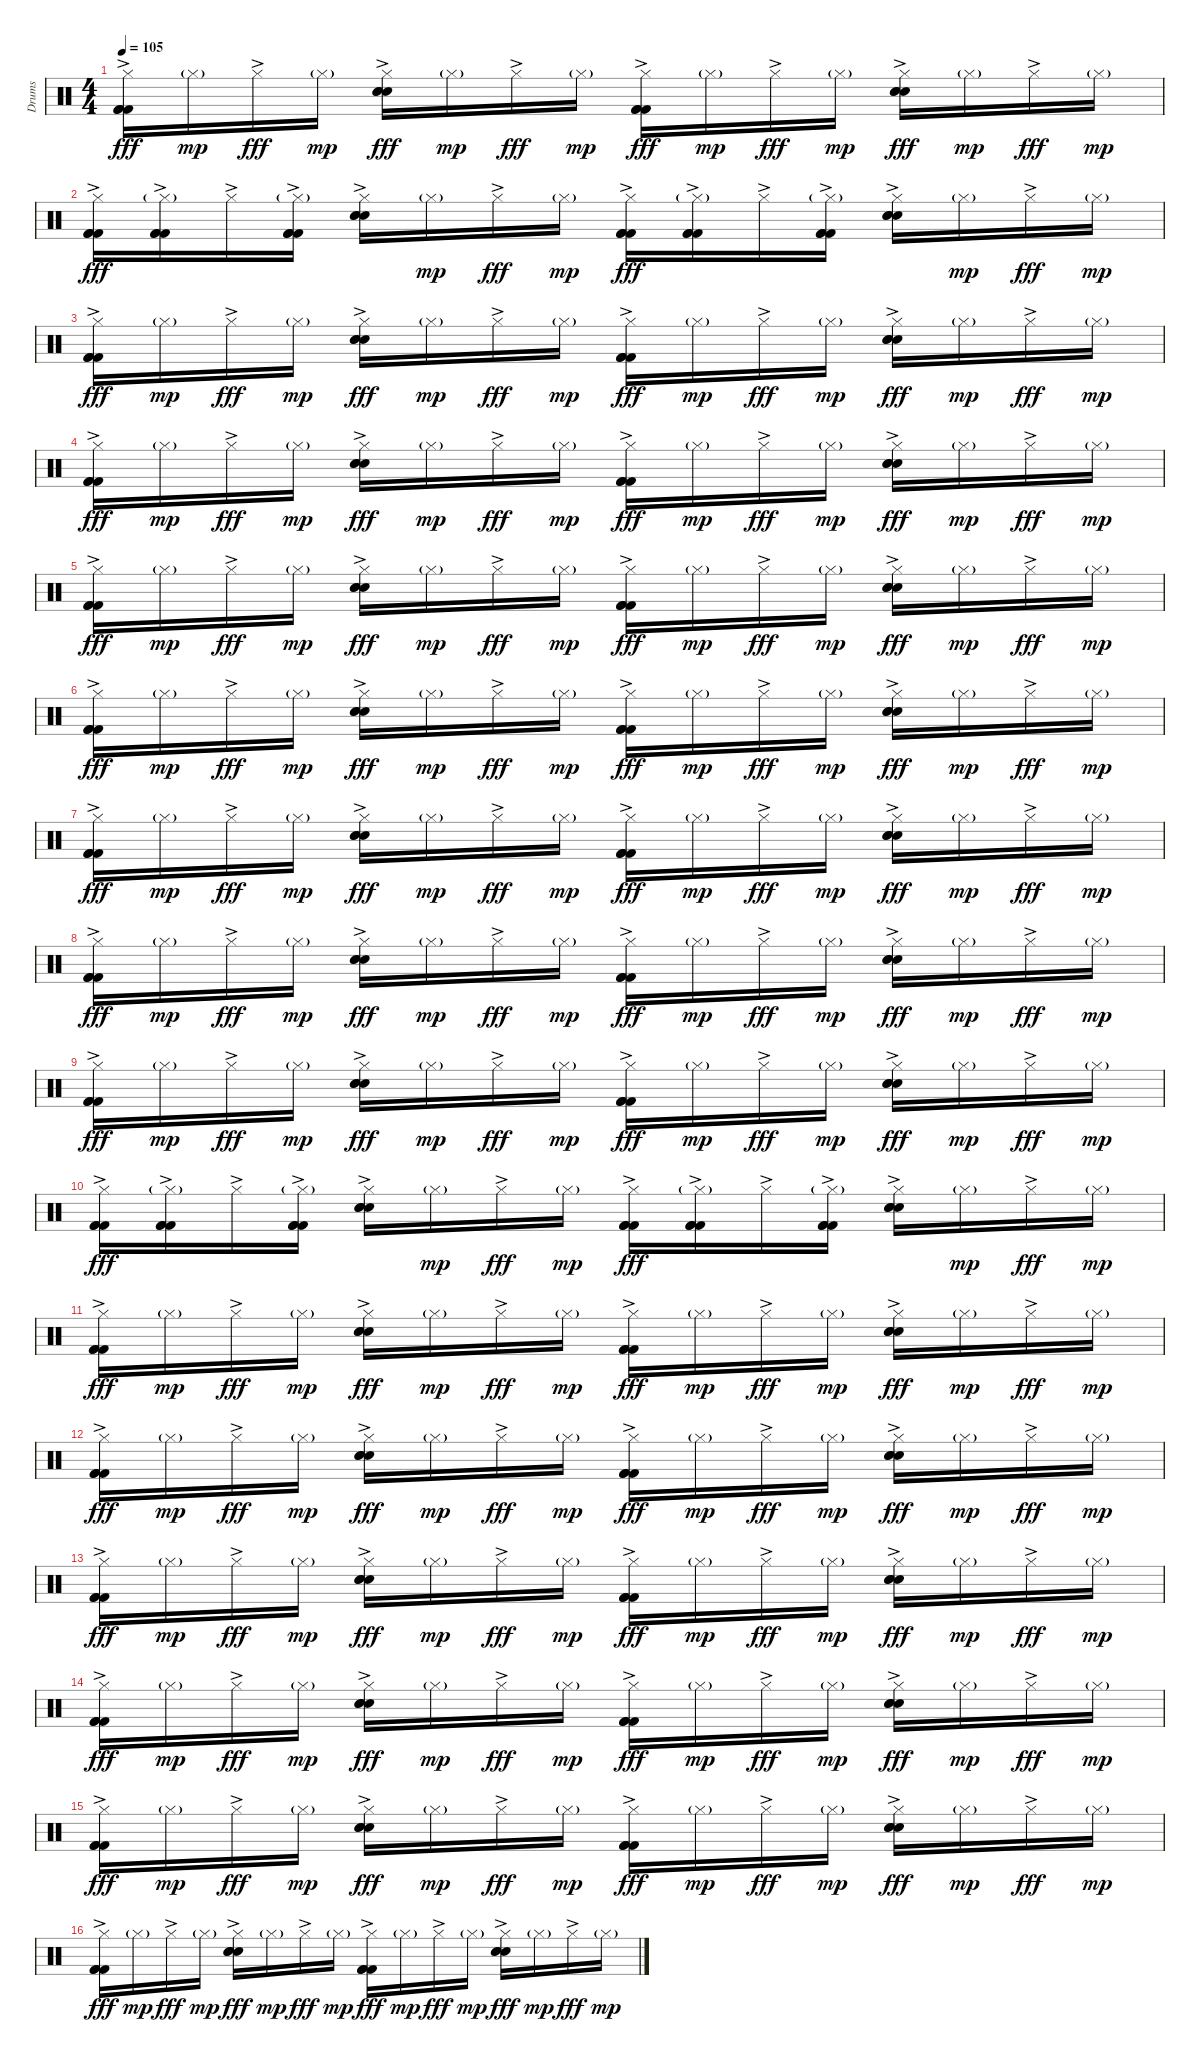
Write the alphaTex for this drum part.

\track ("Drums" "Drums") {instrument percussion}
\staff {score}
\articulation defaults
\ts (4 4)
\tempo 105
\clef neutral
\ks c
("Hi-Hat (closed)"{ac} "Kick (hit) 2"{ac} "Kick (hit) 2"{ac} "Kick (hit) 2"{ac}).16{dy fff} "Hi-Hat (closed)"{g}.16{dy mp} "Hi-Hat (closed)"{ac}.16{dy fff} "Hi-Hat (closed)"{g}.16{dy mp} ("Hi-Hat (closed)"{ac} "Snare (hit) 2"{ac} "Snare (hit) 2"{ac} "Snare (hit) 2"{ac}).16{dy fff} "Hi-Hat (closed)"{g}.16{dy mp} "Hi-Hat (closed)"{ac}.16{dy fff} "Hi-Hat (closed)"{g}.16{dy mp} ("Hi-Hat (closed)"{ac} "Kick (hit) 2"{ac} "Kick (hit) 2"{ac} "Kick (hit) 2"{ac}).16{dy fff} "Hi-Hat (closed)"{g}.16{dy mp} "Hi-Hat (closed)"{ac}.16{dy fff} "Hi-Hat (closed)"{g}.16{dy mp} ("Hi-Hat (closed)"{ac} "Snare (hit) 2"{ac} "Snare (hit) 2"{ac} "Snare (hit) 2"{ac}).16{dy fff} "Hi-Hat (closed)"{g}.16{dy mp} "Hi-Hat (closed)"{ac}.16{dy fff} "Hi-Hat (closed)"{g}.16{dy mp} |
("Hi-Hat (closed)"{ac} "Kick (hit) 2"{ac} "Kick (hit) 2"{ac} "Kick (hit) 2"{ac}).16{dy fff} ("Hi-Hat (closed)"{g} "Kick (hit) 2"{ac} "Kick (hit) 2"{ac} "Kick (hit) 2"{ac}).16 "Hi-Hat (closed)"{ac}.16 ("Hi-Hat (closed)"{g} "Kick (hit) 2"{ac} "Kick (hit) 2"{ac} "Kick (hit) 2"{ac}).16 ("Hi-Hat (closed)"{ac} "Snare (hit) 2"{ac} "Snare (hit) 2"{ac} "Snare (hit) 2"{ac}).16 "Hi-Hat (closed)"{g}.16{dy mp} "Hi-Hat (closed)"{ac}.16{dy fff} "Hi-Hat (closed)"{g}.16{dy mp} ("Hi-Hat (closed)"{ac} "Kick (hit) 2"{ac} "Kick (hit) 2"{ac} "Kick (hit) 2"{ac}).16{dy fff} ("Hi-Hat (closed)"{g} "Kick (hit) 2"{ac} "Kick (hit) 2"{ac} "Kick (hit) 2"{ac}).16 "Hi-Hat (closed)"{ac}.16 ("Hi-Hat (closed)"{g} "Kick (hit) 2"{ac} "Kick (hit) 2"{ac} "Kick (hit) 2"{ac}).16 ("Hi-Hat (closed)"{ac} "Snare (hit) 2"{ac} "Snare (hit) 2"{ac} "Snare (hit) 2"{ac}).16 "Hi-Hat (closed)"{g}.16{dy mp} "Hi-Hat (closed)"{ac}.16{dy fff} "Hi-Hat (closed)"{g}.16{dy mp} |
("Hi-Hat (closed)"{ac} "Kick (hit) 2"{ac} "Kick (hit) 2"{ac} "Kick (hit) 2"{ac}).16{dy fff} "Hi-Hat (closed)"{g}.16{dy mp} "Hi-Hat (closed)"{ac}.16{dy fff} "Hi-Hat (closed)"{g}.16{dy mp} ("Hi-Hat (closed)"{ac} "Snare (hit) 2"{ac} "Snare (hit) 2"{ac} "Snare (hit) 2"{ac}).16{dy fff} "Hi-Hat (closed)"{g}.16{dy mp} "Hi-Hat (closed)"{ac}.16{dy fff} "Hi-Hat (closed)"{g}.16{dy mp} ("Hi-Hat (closed)"{ac} "Kick (hit) 2"{ac} "Kick (hit) 2"{ac} "Kick (hit) 2"{ac}).16{dy fff} "Hi-Hat (closed)"{g}.16{dy mp} "Hi-Hat (closed)"{ac}.16{dy fff} "Hi-Hat (closed)"{g}.16{dy mp} ("Hi-Hat (closed)"{ac} "Snare (hit) 2"{ac} "Snare (hit) 2"{ac} "Snare (hit) 2"{ac}).16{dy fff} "Hi-Hat (closed)"{g}.16{dy mp} "Hi-Hat (closed)"{ac}.16{dy fff} "Hi-Hat (closed)"{g}.16{dy mp} |
("Hi-Hat (closed)"{ac} "Kick (hit) 2"{ac} "Kick (hit) 2"{ac} "Kick (hit) 2"{ac}).16{dy fff} "Hi-Hat (closed)"{g}.16{dy mp} "Hi-Hat (closed)"{ac}.16{dy fff} "Hi-Hat (closed)"{g}.16{dy mp} ("Hi-Hat (closed)"{ac} "Snare (hit) 2"{ac} "Snare (hit) 2"{ac} "Snare (hit) 2"{ac}).16{dy fff} "Hi-Hat (closed)"{g}.16{dy mp} "Hi-Hat (closed)"{ac}.16{dy fff} "Hi-Hat (closed)"{g}.16{dy mp} ("Hi-Hat (closed)"{ac} "Kick (hit) 2"{ac} "Kick (hit) 2"{ac} "Kick (hit) 2"{ac}).16{dy fff} "Hi-Hat (closed)"{g}.16{dy mp} "Hi-Hat (closed)"{ac}.16{dy fff} "Hi-Hat (closed)"{g}.16{dy mp} ("Hi-Hat (closed)"{ac} "Snare (hit) 2"{ac} "Snare (hit) 2"{ac} "Snare (hit) 2"{ac}).16{dy fff} "Hi-Hat (closed)"{g}.16{dy mp} "Hi-Hat (closed)"{ac}.16{dy fff} "Hi-Hat (closed)"{g}.16{dy mp} |
("Hi-Hat (closed)"{ac} "Kick (hit) 2"{ac} "Kick (hit) 2"{ac} "Kick (hit) 2"{ac}).16{dy fff} "Hi-Hat (closed)"{g}.16{dy mp} "Hi-Hat (closed)"{ac}.16{dy fff} "Hi-Hat (closed)"{g}.16{dy mp} ("Hi-Hat (closed)"{ac} "Snare (hit) 2"{ac} "Snare (hit) 2"{ac} "Snare (hit) 2"{ac}).16{dy fff} "Hi-Hat (closed)"{g}.16{dy mp} "Hi-Hat (closed)"{ac}.16{dy fff} "Hi-Hat (closed)"{g}.16{dy mp} ("Hi-Hat (closed)"{ac} "Kick (hit) 2"{ac} "Kick (hit) 2"{ac} "Kick (hit) 2"{ac}).16{dy fff} "Hi-Hat (closed)"{g}.16{dy mp} "Hi-Hat (closed)"{ac}.16{dy fff} "Hi-Hat (closed)"{g}.16{dy mp} ("Hi-Hat (closed)"{ac} "Snare (hit) 2"{ac} "Snare (hit) 2"{ac} "Snare (hit) 2"{ac}).16{dy fff} "Hi-Hat (closed)"{g}.16{dy mp} "Hi-Hat (closed)"{ac}.16{dy fff} "Hi-Hat (closed)"{g}.16{dy mp} |
("Hi-Hat (closed)"{ac} "Kick (hit) 2"{ac} "Kick (hit) 2"{ac} "Kick (hit) 2"{ac}).16{dy fff} "Hi-Hat (closed)"{g}.16{dy mp} "Hi-Hat (closed)"{ac}.16{dy fff} "Hi-Hat (closed)"{g}.16{dy mp} ("Hi-Hat (closed)"{ac} "Snare (hit) 2"{ac} "Snare (hit) 2"{ac} "Snare (hit) 2"{ac}).16{dy fff} "Hi-Hat (closed)"{g}.16{dy mp} "Hi-Hat (closed)"{ac}.16{dy fff} "Hi-Hat (closed)"{g}.16{dy mp} ("Hi-Hat (closed)"{ac} "Kick (hit) 2"{ac} "Kick (hit) 2"{ac} "Kick (hit) 2"{ac}).16{dy fff} "Hi-Hat (closed)"{g}.16{dy mp} "Hi-Hat (closed)"{ac}.16{dy fff} "Hi-Hat (closed)"{g}.16{dy mp} ("Hi-Hat (closed)"{ac} "Snare (hit) 2"{ac} "Snare (hit) 2"{ac} "Snare (hit) 2"{ac}).16{dy fff} "Hi-Hat (closed)"{g}.16{dy mp} "Hi-Hat (closed)"{ac}.16{dy fff} "Hi-Hat (closed)"{g}.16{dy mp} |
("Hi-Hat (closed)"{ac} "Kick (hit) 2"{ac} "Kick (hit) 2"{ac} "Kick (hit) 2"{ac}).16{dy fff} "Hi-Hat (closed)"{g}.16{dy mp} "Hi-Hat (closed)"{ac}.16{dy fff} "Hi-Hat (closed)"{g}.16{dy mp} ("Hi-Hat (closed)"{ac} "Snare (hit) 2"{ac} "Snare (hit) 2"{ac} "Snare (hit) 2"{ac}).16{dy fff} "Hi-Hat (closed)"{g}.16{dy mp} "Hi-Hat (closed)"{ac}.16{dy fff} "Hi-Hat (closed)"{g}.16{dy mp} ("Hi-Hat (closed)"{ac} "Kick (hit) 2"{ac} "Kick (hit) 2"{ac} "Kick (hit) 2"{ac}).16{dy fff} "Hi-Hat (closed)"{g}.16{dy mp} "Hi-Hat (closed)"{ac}.16{dy fff} "Hi-Hat (closed)"{g}.16{dy mp} ("Hi-Hat (closed)"{ac} "Snare (hit) 2"{ac} "Snare (hit) 2"{ac} "Snare (hit) 2"{ac}).16{dy fff} "Hi-Hat (closed)"{g}.16{dy mp} "Hi-Hat (closed)"{ac}.16{dy fff} "Hi-Hat (closed)"{g}.16{dy mp} |
("Hi-Hat (closed)"{ac} "Kick (hit) 2"{ac} "Kick (hit) 2"{ac} "Kick (hit) 2"{ac}).16{dy fff} "Hi-Hat (closed)"{g}.16{dy mp} "Hi-Hat (closed)"{ac}.16{dy fff} "Hi-Hat (closed)"{g}.16{dy mp} ("Hi-Hat (closed)"{ac} "Snare (hit) 2"{ac} "Snare (hit) 2"{ac} "Snare (hit) 2"{ac}).16{dy fff} "Hi-Hat (closed)"{g}.16{dy mp} "Hi-Hat (closed)"{ac}.16{dy fff} "Hi-Hat (closed)"{g}.16{dy mp} ("Hi-Hat (closed)"{ac} "Kick (hit) 2"{ac} "Kick (hit) 2"{ac} "Kick (hit) 2"{ac}).16{dy fff} "Hi-Hat (closed)"{g}.16{dy mp} "Hi-Hat (closed)"{ac}.16{dy fff} "Hi-Hat (closed)"{g}.16{dy mp} ("Hi-Hat (closed)"{ac} "Snare (hit) 2"{ac} "Snare (hit) 2"{ac} "Snare (hit) 2"{ac}).16{dy fff} "Hi-Hat (closed)"{g}.16{dy mp} "Hi-Hat (closed)"{ac}.16{dy fff} "Hi-Hat (closed)"{g}.16{dy mp} |
("Hi-Hat (closed)"{ac} "Kick (hit) 2"{ac} "Kick (hit) 2"{ac} "Kick (hit) 2"{ac}).16{dy fff} "Hi-Hat (closed)"{g}.16{dy mp} "Hi-Hat (closed)"{ac}.16{dy fff} "Hi-Hat (closed)"{g}.16{dy mp} ("Hi-Hat (closed)"{ac} "Snare (hit) 2"{ac} "Snare (hit) 2"{ac} "Snare (hit) 2"{ac}).16{dy fff} "Hi-Hat (closed)"{g}.16{dy mp} "Hi-Hat (closed)"{ac}.16{dy fff} "Hi-Hat (closed)"{g}.16{dy mp} ("Hi-Hat (closed)"{ac} "Kick (hit) 2"{ac} "Kick (hit) 2"{ac} "Kick (hit) 2"{ac}).16{dy fff} "Hi-Hat (closed)"{g}.16{dy mp} "Hi-Hat (closed)"{ac}.16{dy fff} "Hi-Hat (closed)"{g}.16{dy mp} ("Hi-Hat (closed)"{ac} "Snare (hit) 2"{ac} "Snare (hit) 2"{ac} "Snare (hit) 2"{ac}).16{dy fff} "Hi-Hat (closed)"{g}.16{dy mp} "Hi-Hat (closed)"{ac}.16{dy fff} "Hi-Hat (closed)"{g}.16{dy mp} |
("Hi-Hat (closed)"{ac} "Kick (hit) 2"{ac} "Kick (hit) 2"{ac} "Kick (hit) 2"{ac}).16{dy fff} ("Hi-Hat (closed)"{g} "Kick (hit) 2"{ac} "Kick (hit) 2"{ac} "Kick (hit) 2"{ac}).16 "Hi-Hat (closed)"{ac}.16 ("Hi-Hat (closed)"{g} "Kick (hit) 2"{ac} "Kick (hit) 2"{ac} "Kick (hit) 2"{ac}).16 ("Hi-Hat (closed)"{ac} "Snare (hit) 2"{ac} "Snare (hit) 2"{ac} "Snare (hit) 2"{ac}).16 "Hi-Hat (closed)"{g}.16{dy mp} "Hi-Hat (closed)"{ac}.16{dy fff} "Hi-Hat (closed)"{g}.16{dy mp} ("Hi-Hat (closed)"{ac} "Kick (hit) 2"{ac} "Kick (hit) 2"{ac} "Kick (hit) 2"{ac}).16{dy fff} ("Hi-Hat (closed)"{g} "Kick (hit) 2"{ac} "Kick (hit) 2"{ac} "Kick (hit) 2"{ac}).16 "Hi-Hat (closed)"{ac}.16 ("Hi-Hat (closed)"{g} "Kick (hit) 2"{ac} "Kick (hit) 2"{ac} "Kick (hit) 2"{ac}).16 ("Hi-Hat (closed)"{ac} "Snare (hit) 2"{ac} "Snare (hit) 2"{ac} "Snare (hit) 2"{ac}).16 "Hi-Hat (closed)"{g}.16{dy mp} "Hi-Hat (closed)"{ac}.16{dy fff} "Hi-Hat (closed)"{g}.16{dy mp} |
("Hi-Hat (closed)"{ac} "Kick (hit) 2"{ac} "Kick (hit) 2"{ac} "Kick (hit) 2"{ac}).16{dy fff} "Hi-Hat (closed)"{g}.16{dy mp} "Hi-Hat (closed)"{ac}.16{dy fff} "Hi-Hat (closed)"{g}.16{dy mp} ("Hi-Hat (closed)"{ac} "Snare (hit) 2"{ac} "Snare (hit) 2"{ac} "Snare (hit) 2"{ac}).16{dy fff} "Hi-Hat (closed)"{g}.16{dy mp} "Hi-Hat (closed)"{ac}.16{dy fff} "Hi-Hat (closed)"{g}.16{dy mp} ("Hi-Hat (closed)"{ac} "Kick (hit) 2"{ac} "Kick (hit) 2"{ac} "Kick (hit) 2"{ac}).16{dy fff} "Hi-Hat (closed)"{g}.16{dy mp} "Hi-Hat (closed)"{ac}.16{dy fff} "Hi-Hat (closed)"{g}.16{dy mp} ("Hi-Hat (closed)"{ac} "Snare (hit) 2"{ac} "Snare (hit) 2"{ac} "Snare (hit) 2"{ac}).16{dy fff} "Hi-Hat (closed)"{g}.16{dy mp} "Hi-Hat (closed)"{ac}.16{dy fff} "Hi-Hat (closed)"{g}.16{dy mp} |
("Hi-Hat (closed)"{ac} "Kick (hit) 2"{ac} "Kick (hit) 2"{ac} "Kick (hit) 2"{ac}).16{dy fff volume 9} "Hi-Hat (closed)"{g}.16{dy mp} "Hi-Hat (closed)"{ac}.16{dy fff} "Hi-Hat (closed)"{g}.16{dy mp} ("Hi-Hat (closed)"{ac} "Snare (hit) 2"{ac} "Snare (hit) 2"{ac} "Snare (hit) 2"{ac}).16{dy fff} "Hi-Hat (closed)"{g}.16{dy mp} "Hi-Hat (closed)"{ac}.16{dy fff} "Hi-Hat (closed)"{g}.16{dy mp} ("Hi-Hat (closed)"{ac} "Kick (hit) 2"{ac} "Kick (hit) 2"{ac} "Kick (hit) 2"{ac}).16{dy fff} "Hi-Hat (closed)"{g}.16{dy mp} "Hi-Hat (closed)"{ac}.16{dy fff} "Hi-Hat (closed)"{g}.16{dy mp} ("Hi-Hat (closed)"{ac} "Snare (hit) 2"{ac} "Snare (hit) 2"{ac} "Snare (hit) 2"{ac}).16{dy fff} "Hi-Hat (closed)"{g}.16{dy mp} "Hi-Hat (closed)"{ac}.16{dy fff} "Hi-Hat (closed)"{g}.16{dy mp} |
("Hi-Hat (closed)"{ac} "Kick (hit) 2"{ac} "Kick (hit) 2"{ac} "Kick (hit) 2"{ac}).16{dy fff volume 9} "Hi-Hat (closed)"{g}.16{dy mp} "Hi-Hat (closed)"{ac}.16{dy fff} "Hi-Hat (closed)"{g}.16{dy mp} ("Hi-Hat (closed)"{ac} "Snare (hit) 2"{ac} "Snare (hit) 2"{ac} "Snare (hit) 2"{ac}).16{dy fff} "Hi-Hat (closed)"{g}.16{dy mp} "Hi-Hat (closed)"{ac}.16{dy fff} "Hi-Hat (closed)"{g}.16{dy mp} ("Hi-Hat (closed)"{ac} "Kick (hit) 2"{ac} "Kick (hit) 2"{ac} "Kick (hit) 2"{ac}).16{dy fff} "Hi-Hat (closed)"{g}.16{dy mp} "Hi-Hat (closed)"{ac}.16{dy fff} "Hi-Hat (closed)"{g}.16{dy mp} ("Hi-Hat (closed)"{ac} "Snare (hit) 2"{ac} "Snare (hit) 2"{ac} "Snare (hit) 2"{ac}).16{dy fff} "Hi-Hat (closed)"{g}.16{dy mp} "Hi-Hat (closed)"{ac}.16{dy fff} "Hi-Hat (closed)"{g}.16{dy mp} |
("Hi-Hat (closed)"{ac} "Kick (hit) 2"{ac} "Kick (hit) 2"{ac} "Kick (hit) 2"{ac}).16{dy fff} "Hi-Hat (closed)"{g}.16{dy mp} "Hi-Hat (closed)"{ac}.16{dy fff volume 5} "Hi-Hat (closed)"{g}.16{dy mp} ("Hi-Hat (closed)"{ac} "Snare (hit) 2"{ac} "Snare (hit) 2"{ac} "Snare (hit) 2"{ac}).16{dy fff} "Hi-Hat (closed)"{g}.16{dy mp} "Hi-Hat (closed)"{ac}.16{dy fff} "Hi-Hat (closed)"{g}.16{dy mp} ("Hi-Hat (closed)"{ac} "Kick (hit) 2"{ac} "Kick (hit) 2"{ac} "Kick (hit) 2"{ac}).16{dy fff} "Hi-Hat (closed)"{g}.16{dy mp} "Hi-Hat (closed)"{ac}.16{dy fff} "Hi-Hat (closed)"{g}.16{dy mp} ("Hi-Hat (closed)"{ac} "Snare (hit) 2"{ac} "Snare (hit) 2"{ac} "Snare (hit) 2"{ac}).16{dy fff} "Hi-Hat (closed)"{g}.16{dy mp} "Hi-Hat (closed)"{ac}.16{dy fff} "Hi-Hat (closed)"{g}.16{dy mp} |
("Hi-Hat (closed)"{ac} "Kick (hit) 2"{ac} "Kick (hit) 2"{ac} "Kick (hit) 2"{ac}).16{dy fff volume 3} "Hi-Hat (closed)"{g}.16{dy mp} "Hi-Hat (closed)"{ac}.16{dy fff} "Hi-Hat (closed)"{g}.16{dy mp} ("Hi-Hat (closed)"{ac} "Snare (hit) 2"{ac} "Snare (hit) 2"{ac} "Snare (hit) 2"{ac}).16{dy fff} "Hi-Hat (closed)"{g}.16{dy mp} "Hi-Hat (closed)"{ac}.16{dy fff} "Hi-Hat (closed)"{g}.16{dy mp} ("Hi-Hat (closed)"{ac} "Kick (hit) 2"{ac} "Kick (hit) 2"{ac} "Kick (hit) 2"{ac}).16{dy fff} "Hi-Hat (closed)"{g}.16{dy mp} "Hi-Hat (closed)"{ac}.16{dy fff} "Hi-Hat (closed)"{g}.16{dy mp} ("Hi-Hat (closed)"{ac} "Snare (hit) 2"{ac} "Snare (hit) 2"{ac} "Snare (hit) 2"{ac}).16{dy fff} "Hi-Hat (closed)"{g}.16{dy mp} "Hi-Hat (closed)"{ac}.16{dy fff} "Hi-Hat (closed)"{g}.16{dy mp} |
("Hi-Hat (closed)"{ac} "Kick (hit) 2"{ac} "Kick (hit) 2"{ac} "Kick (hit) 2"{ac}).16{dy fff volume 2} "Hi-Hat (closed)"{g}.16{dy mp} "Hi-Hat (closed)"{ac}.16{dy fff} "Hi-Hat (closed)"{g}.16{dy mp} ("Hi-Hat (closed)"{ac} "Snare (hit) 2"{ac} "Snare (hit) 2"{ac} "Snare (hit) 2"{ac}).16{dy fff} "Hi-Hat (closed)"{g}.16{dy mp} "Hi-Hat (closed)"{ac}.16{dy fff} "Hi-Hat (closed)"{g}.16{dy mp} ("Hi-Hat (closed)"{ac} "Kick (hit) 2"{ac} "Kick (hit) 2"{ac} "Kick (hit) 2"{ac}).16{dy fff} "Hi-Hat (closed)"{g}.16{dy mp} "Hi-Hat (closed)"{ac}.16{dy fff} "Hi-Hat (closed)"{g}.16{dy mp} ("Hi-Hat (closed)"{ac} "Snare (hit) 2"{ac} "Snare (hit) 2"{ac} "Snare (hit) 2"{ac}).16{dy fff} "Hi-Hat (closed)"{g}.16{dy mp} "Hi-Hat (closed)"{ac}.16{dy fff} "Hi-Hat (closed)"{g}.16{dy mp}
